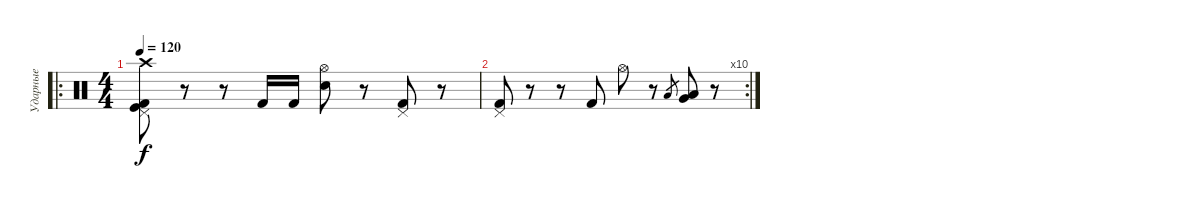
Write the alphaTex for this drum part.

\track ("Ударные" "Ударные") {instrument percussion}
\staff {score}
\articulation defaults
\ro
\ts (4 4)
\tempo 120
\clef neutral
\ks c
("Kick (hit) 2" "Kick (hit)" "Pedal Hi-Hat (hit)" "Crash high (hit)").8{dy f} r.8 r.8 "Kick (hit) 2".16 "Kick (hit) 2".16 ("Electric Snare (hit)" "Hi-Hat (open)").8 r.8 ("Kick (hit) 2" "Pedal Hi-Hat (hit)").8 r.8 |
\rc 10
("Kick (hit) 2" "Pedal Hi-Hat (hit)").8 r.8 r.8 "Kick (hit) 2".8 "Hi-Hat (open)".8 r.8 "Low Floor Tom (hit)".8{gr} ("Very Low Tom (hit)" "Low Floor Tom (hit)").8 r.8
